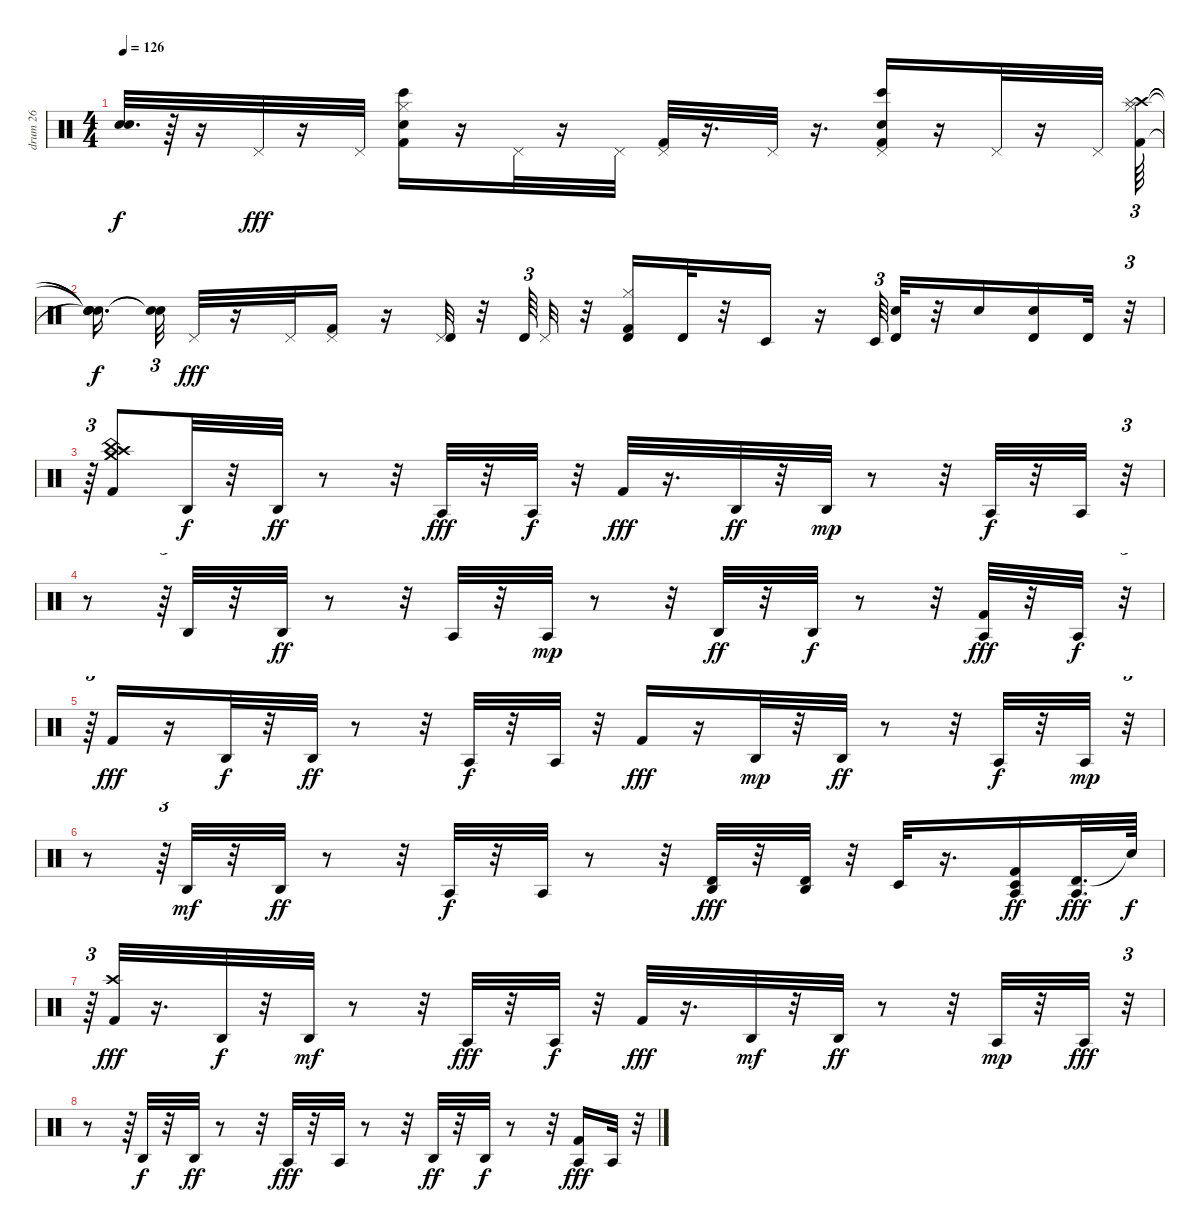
\track ("drum 26" "drum 26") {instrument percussion}
\staff {score}
\articulation defaults
\ts (4 4)
\tempo 126
\clef neutral
\ks c
("Snare (hit)"{t} "Snare (hit)"{t}).32{d dy f} r.64 r.16 "Pedal Hi-Hat (hit)".32{dy fff} r.16 "Pedal Hi-Hat (hit)".32 ("Bongo High (hit)" "Kick (hit) 2" "Hand Clap (hit)" "Hi-Hat (closed)").16 r.16 "Pedal Hi-Hat (hit)".32 r.16 "Pedal Hi-Hat (hit)".32 ("Kick (hit) 2" "Pedal Hi-Hat (hit)").32 r.16{d} "Pedal Hi-Hat (hit)".32 r.16{d} ("Bongo High (hit)" "Kick (hit) 2" "Hand Clap (hit)" "Pedal Hi-Hat (hit)").16 r.16 "Pedal Hi-Hat (hit)".32 r.16 "Pedal Hi-Hat (hit)".32 ("Kick (hit) 2" "Hi-Hat (closed)" "Crash high (hit)" "Splash (hit)").64{tu (3 2)} |
("Snare (hit)"{t} "Snare (hit)"{t} "Snare (hit)"{t} "Snare (hit)"{t}).16{d dy f beam splitsecondary} ("Snare (hit)"{t} "Snare (hit)"{t}).32{tu (3 2)} "Pedal Hi-Hat (hit)".32{dy fff} r.16 "Pedal Hi-Hat (hit)".32 ("Kick (hit) 2" "Pedal Hi-Hat (hit)").16 r.16 ("Pedal Hi-Hat (hit)" "Timbale high (hit)").32 r.32 "Timbale high (hit)".64{tu (3 2)} "Pedal Hi-Hat (hit)".32 r.32 ("Kick (hit) 2" "Hi-Hat (closed)" "Timbale high (hit)").16 "Timbale high (hit)".32 r.32 "Timbale low (hit)".16 r.16 "Timbale low (hit)".64{tu (3 2)} ("Electric Snare (hit)" "Timbale high (hit)").32 r.32 "Electric Snare (hit)".16 ("Electric Snare (hit)" "Timbale high (hit)").16 "Timbale high (hit)".32 r.32{tu (3 2)} |
r.64{tu (3 2)} ("Kick (hit) 2" "Crash high (hit)" "China (hit)" "Crash medium (hit)").8 "Agogo high (hit)".32{dy f} r.32 "Agogo high (hit)".32{dy ff} r.8 r.32 "Agogo tow (hit)".32{dy fff} r.32 "Agogo tow (hit)".32{dy f} r.32 "Kick (hit) 2".32{dy fff} r.16{d} "Agogo high (hit)".32{dy ff} r.32 "Agogo high (hit)".32{dy mp} r.8 r.32 "Agogo tow (hit)".32{dy f} r.32 "Agogo tow (hit)".32 r.32{tu (3 2)} |
r.8 r.64{tu (3 2)} "Agogo high (hit)".32 r.32 "Agogo high (hit)".32{dy ff} r.8 r.32 "Agogo tow (hit)".32 r.32 "Agogo tow (hit)".32{dy mp} r.8 r.32 "Agogo high (hit)".32{dy ff} r.32 "Agogo high (hit)".32{dy f} r.8 r.32 ("Kick (hit) 2" "Agogo tow (hit)").32{dy fff} r.32 "Agogo tow (hit)".32{dy f} r.32{tu (3 2)} |
r.64{tu (3 2)} "Kick (hit) 2".16{dy fff} r.16 "Agogo high (hit)".32{dy f} r.32 "Agogo high (hit)".32{dy ff} r.8 r.32 "Agogo tow (hit)".32{dy f} r.32 "Agogo tow (hit)".32 r.32 "Kick (hit) 2".16{dy fff} r.16 "Agogo high (hit)".32{dy mp} r.32 "Agogo high (hit)".32{dy ff} r.8 r.32 "Agogo tow (hit)".32{dy f} r.32 "Agogo tow (hit)".32{dy mp} r.32{tu (3 2)} |
r.8 r.64{tu (3 2)} "Agogo high (hit)".32{dy mf} r.32 "Agogo high (hit)".32{dy ff} r.8 r.32 "Agogo tow (hit)".32{dy f} r.32 "Agogo tow (hit)".32 r.8 r.32 ("Timbale high (hit)" "Agogo high (hit)").32{dy fff} r.32 ("Timbale high (hit)" "Agogo high (hit)").32 r.32 "Timbale low (hit)".32 r.16{d} ("Kick (hit) 2" "Timbale low (hit)" "Agogo tow (hit)").16{dy ff} ("Timbale high (hit)" "Agogo tow (hit)").32{d dy fff} "Snare (hit)"{t}.64{dy f} |
r.64{tu (3 2)} ("Kick (hit) 2" "Crash high (hit)").32{dy fff} r.16{d} "Agogo high (hit)".32{dy f} r.32 "Agogo high (hit)".32{dy mf} r.8 r.32 "Agogo tow (hit)".32{dy fff} r.32 "Agogo tow (hit)".32{dy f} r.32 "Kick (hit) 2".32{dy fff} r.16{d} "Agogo high (hit)".32{dy mf} r.32 "Agogo high (hit)".32{dy ff} r.8 r.32 "Agogo tow (hit)".32{dy mp} r.32 "Agogo tow (hit)".32{dy fff} r.32{tu (3 2)} |
r.8 r.64{tu (3 2)} "Agogo high (hit)".32{dy f} r.32 "Agogo high (hit)".32{dy ff} r.8 r.32 "Agogo tow (hit)".32{dy fff} r.32 "Agogo tow (hit)".32 r.8 r.32 "Agogo high (hit)".32{dy ff} r.32 "Agogo high (hit)".32{dy f} r.8 r.32 ("Kick (hit) 2" "Agogo tow (hit)").16{dy fff} "Agogo tow (hit)".32 r.32{tu (3 2)}
